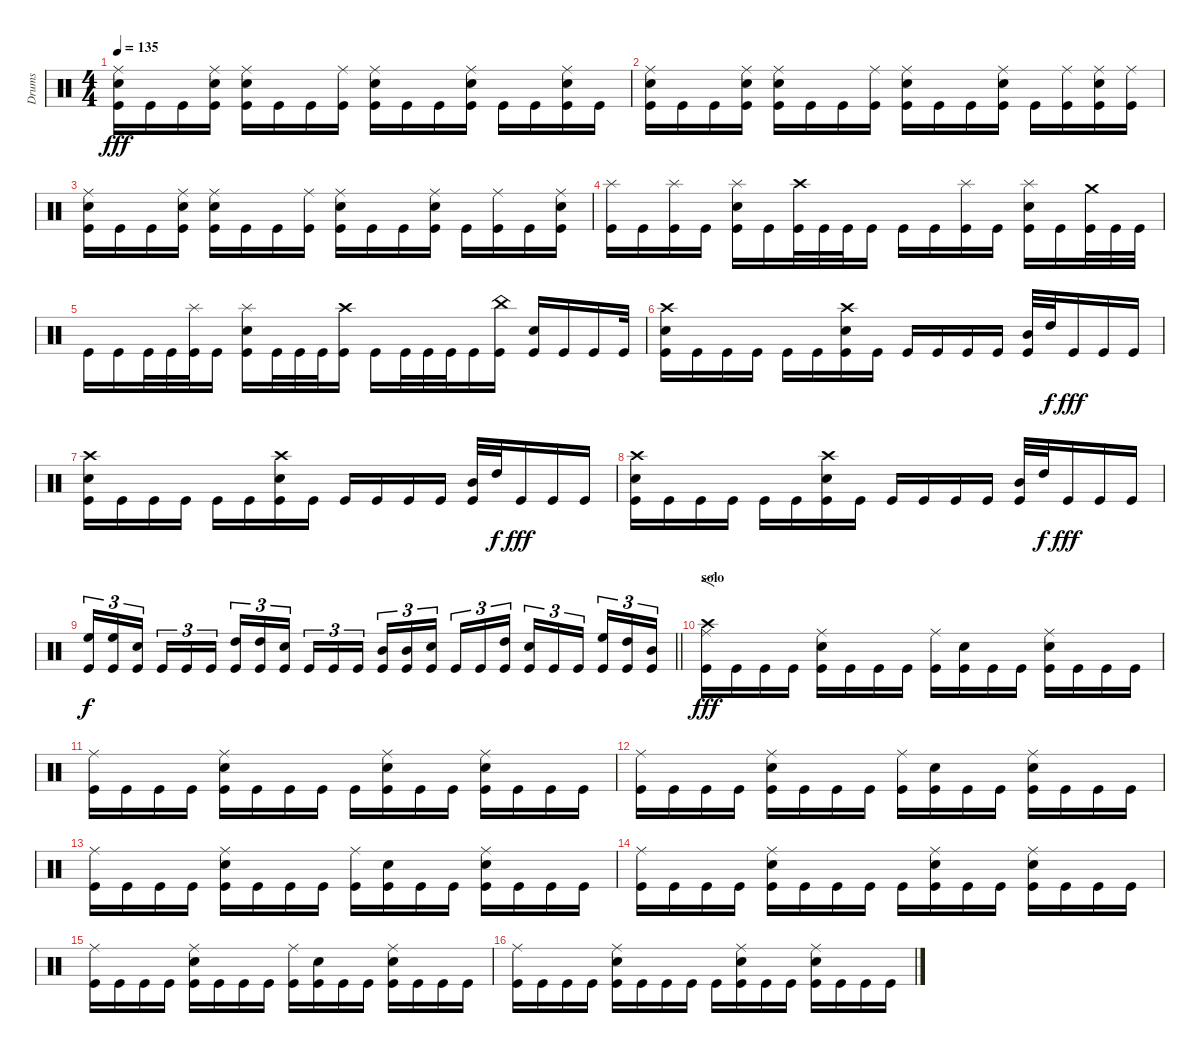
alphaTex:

\track ("Drums" "Drums") {instrument percussion}
\staff {score}
\articulation defaults
\ts (4 4)
\tempo 135
\clef neutral
\ks c
("Ride (middle)" "Electric Snare (hit)" "Kick (hit)").16{dy fff} "Kick (hit)".16 "Kick (hit)".16 ("Ride (middle)" "Electric Snare (hit)" "Kick (hit)").16 ("Ride (middle)" "Electric Snare (hit)" "Kick (hit)").16 "Kick (hit)".16 "Kick (hit)".16 ("Ride (middle)" "Kick (hit)").16 ("Ride (middle)" "Electric Snare (hit)" "Kick (hit)").16 "Kick (hit)".16 "Kick (hit)".16 ("Ride (middle)" "Electric Snare (hit)" "Kick (hit)").16 "Kick (hit)".16 "Kick (hit)".16 ("Ride (middle)" "Electric Snare (hit)" "Kick (hit)").16 "Kick (hit)".16 |
("Ride (middle)" "Electric Snare (hit)" "Kick (hit)").16 "Kick (hit)".16 "Kick (hit)".16 ("Ride (middle)" "Electric Snare (hit)" "Kick (hit)").16 ("Ride (middle)" "Electric Snare (hit)" "Kick (hit)").16 "Kick (hit)".16 "Kick (hit)".16 ("Ride (middle)" "Kick (hit)").16 ("Ride (middle)" "Electric Snare (hit)" "Kick (hit)").16 "Kick (hit)".16 "Kick (hit)".16 ("Ride (middle)" "Electric Snare (hit)" "Kick (hit)").16 "Kick (hit)".16 ("Ride (middle)" "Kick (hit)").16 ("Ride (middle)" "Electric Snare (hit)" "Kick (hit)").16 ("Ride (middle)" "Kick (hit)").16 |
("Ride (middle)" "Electric Snare (hit)" "Kick (hit)").16 "Kick (hit)".16 "Kick (hit)".16 ("Ride (middle)" "Electric Snare (hit)" "Kick (hit)").16 ("Ride (middle)" "Electric Snare (hit)" "Kick (hit)").16 "Kick (hit)".16 "Kick (hit)".16 ("Ride (middle)" "Kick (hit)").16 ("Ride (middle)" "Electric Snare (hit)" "Kick (hit)").16 "Kick (hit)".16 "Kick (hit)".16 ("Ride (middle)" "Electric Snare (hit)" "Kick (hit)").16 "Kick (hit)".16 ("Ride (middle)" "Kick (hit)").16 "Kick (hit)".16 ("Ride (middle)" "Electric Snare (hit)" "Kick (hit)").16 |
("Splash (hit)" "Kick (hit)").16 "Kick (hit)".16 ("Splash (hit)" "Kick (hit)").16 "Kick (hit)".16 ("Splash (hit)" "Electric Snare (hit)" "Kick (hit)").16 "Kick (hit)".16 ("Crash high (hit)" "Kick (hit)").32 "Kick (hit)".32 "Kick (hit)".32 "Kick (hit)".16 "Kick (hit)".16 "Kick (hit)".16 ("Splash (hit)" "Kick (hit)").16 "Kick (hit)".16 ("Splash (hit)" "Electric Snare (hit)" "Kick (hit)").16 "Kick (hit)".16 ("Crash medium (hit)" "Kick (hit)").32 "Kick (hit)".32 "Kick (hit)".32 |
"Kick (hit)".16 "Kick (hit)".16 "Kick (hit)".32 "Kick (hit)".32 ("Splash (hit)" "Kick (hit)").32 "Kick (hit)".16 ("Splash (hit)" "Electric Snare (hit)" "Kick (hit)").16 "Kick (hit)".32 "Kick (hit)".32 "Kick (hit)".32 ("Crash high (hit)" "Kick (hit)").16 "Kick (hit)".16 "Kick (hit)".32 "Kick (hit)".32 "Kick (hit)".32 "Kick (hit)".16 ("China (hit)" "Kick (hit)").16 ("Electric Snare (hit)" "Kick (hit)").16 "Kick (hit)".16 "Kick (hit)".16 "Kick (hit)".32 |
("Crash high (hit)" "Electric Snare (hit)" "Kick (hit)").16 "Kick (hit)".16 "Kick (hit)".16 "Kick (hit)".16 "Kick (hit)".16 "Kick (hit)".16 ("Crash high (hit)" "Electric Snare (hit)" "Kick (hit)").16 "Kick (hit)".16 "Kick (hit)".16 "Kick (hit)".16 "Kick (hit)".16 "Kick (hit)".16 ("Mid Tom (hit)" "Kick (hit)").32 "High Tom (hit)".32{dy f} "Kick (hit)".16{dy fff} "Kick (hit)".16 "Kick (hit)".16 |
("Crash high (hit)" "Electric Snare (hit)" "Kick (hit)").16 "Kick (hit)".16 "Kick (hit)".16 "Kick (hit)".16 "Kick (hit)".16 "Kick (hit)".16 ("Crash high (hit)" "Electric Snare (hit)" "Kick (hit)").16 "Kick (hit)".16 "Kick (hit)".16 "Kick (hit)".16 "Kick (hit)".16 "Kick (hit)".16 ("Mid Tom (hit)" "Kick (hit)").32 "High Tom (hit)".32{dy f} "Kick (hit)".16{dy fff} "Kick (hit)".16 "Kick (hit)".16 |
("Crash high (hit)" "Electric Snare (hit)" "Kick (hit)").16 "Kick (hit)".16 "Kick (hit)".16 "Kick (hit)".16 "Kick (hit)".16 "Kick (hit)".16 ("Crash high (hit)" "Electric Snare (hit)" "Kick (hit)").16 "Kick (hit)".16 "Kick (hit)".16 "Kick (hit)".16 "Kick (hit)".16 "Kick (hit)".16 ("Mid Tom (hit)" "Kick (hit)").32 "High Tom (hit)".32{dy f} "Kick (hit)".16{dy fff} "Kick (hit)".16 "Kick (hit)".16 |
\barLineRight lightlight
("Kick (hit)" "High Floor Tom (hit)").16{tu (3 2) dy f} ("Kick (hit)" "High Floor Tom (hit)").16{tu (3 2)} ("Kick (hit)" "Electric Snare (hit)").16{tu (3 2) beam splitsecondary} "Kick (hit)".16{tu (3 2)} "Kick (hit)".16{tu (3 2)} "Kick (hit)".16{tu (3 2)} ("Kick (hit)" "High Tom (hit)").16{tu (3 2)} ("Kick (hit)" "High Tom (hit)").16{tu (3 2)} ("Kick (hit)" "Electric Snare (hit)").16{tu (3 2) beam splitsecondary} "Kick (hit)".16{tu (3 2)} "Kick (hit)".16{tu (3 2)} "Kick (hit)".16{tu (3 2)} ("Kick (hit)" "Mid Tom (hit)").16{tu (3 2)} ("Kick (hit)" "Mid Tom (hit)").16{tu (3 2)} ("Kick (hit)" "Electric Snare (hit)").16{tu (3 2) beam splitsecondary} "Kick (hit)".16{tu (3 2)} "Kick (hit)".16{tu (3 2)} ("Kick (hit)" "High Tom (hit)").16{tu (3 2)} ("Kick (hit)" "Electric Snare (hit)").16{tu (3 2)} "Kick (hit)".16{tu (3 2)} "Kick (hit)".16{tu (3 2) beam splitsecondary} ("Kick (hit)" "High Floor Tom (hit)").16{tu (3 2)} ("Kick (hit)" "High Tom (hit)").16{tu (3 2)} ("Kick (hit)" "Mid Tom (hit)").16{tu (3 2)} |
\section ("" "solo")
("Crash high (hit)" "Ride (middle)" "Kick (hit)").16{f dy fff} "Kick (hit)".16 "Kick (hit)".16 "Kick (hit)".16 ("Ride (middle)" "Electric Snare (hit)" "Kick (hit)").16 "Kick (hit)".16 "Kick (hit)".16 "Kick (hit)".16 ("Ride (middle)" "Kick (hit)").16 ("Electric Snare (hit)" "Kick (hit)").16 "Kick (hit)".16 "Kick (hit)".16 ("Ride (middle)" "Electric Snare (hit)" "Kick (hit)").16 "Kick (hit)".16 "Kick (hit)".16 "Kick (hit)".16 |
("Ride (middle)" "Kick (hit)").16 "Kick (hit)".16 "Kick (hit)".16 "Kick (hit)".16 ("Ride (middle)" "Electric Snare (hit)" "Kick (hit)").16 "Kick (hit)".16 "Kick (hit)".16 "Kick (hit)".16 "Kick (hit)".16 ("Ride (middle)" "Electric Snare (hit)" "Kick (hit)").16 "Kick (hit)".16 "Kick (hit)".16 ("Ride (middle)" "Electric Snare (hit)" "Kick (hit)").16 "Kick (hit)".16 "Kick (hit)".16 "Kick (hit)".16 |
("Ride (middle)" "Kick (hit)").16 "Kick (hit)".16 "Kick (hit)".16 "Kick (hit)".16 ("Ride (middle)" "Electric Snare (hit)" "Kick (hit)").16 "Kick (hit)".16 "Kick (hit)".16 "Kick (hit)".16 ("Ride (middle)" "Kick (hit)").16 ("Electric Snare (hit)" "Kick (hit)").16 "Kick (hit)".16 "Kick (hit)".16 ("Ride (middle)" "Electric Snare (hit)" "Kick (hit)").16 "Kick (hit)".16 "Kick (hit)".16 "Kick (hit)".16 |
("Ride (middle)" "Kick (hit)").16 "Kick (hit)".16 "Kick (hit)".16 "Kick (hit)".16 ("Ride (middle)" "Electric Snare (hit)" "Kick (hit)").16 "Kick (hit)".16 "Kick (hit)".16 "Kick (hit)".16 ("Ride (middle)" "Kick (hit)").16 ("Electric Snare (hit)" "Kick (hit)").16 "Kick (hit)".16 "Kick (hit)".16 ("Ride (middle)" "Electric Snare (hit)" "Kick (hit)").16 "Kick (hit)".16 "Kick (hit)".16 "Kick (hit)".16 |
("Ride (middle)" "Kick (hit)").16 "Kick (hit)".16 "Kick (hit)".16 "Kick (hit)".16 ("Ride (middle)" "Electric Snare (hit)" "Kick (hit)").16 "Kick (hit)".16 "Kick (hit)".16 "Kick (hit)".16 "Kick (hit)".16 ("Ride (middle)" "Electric Snare (hit)" "Kick (hit)").16 "Kick (hit)".16 "Kick (hit)".16 ("Ride (middle)" "Electric Snare (hit)" "Kick (hit)").16 "Kick (hit)".16 "Kick (hit)".16 "Kick (hit)".16 |
("Ride (middle)" "Kick (hit)").16 "Kick (hit)".16 "Kick (hit)".16 "Kick (hit)".16 ("Ride (middle)" "Electric Snare (hit)" "Kick (hit)").16 "Kick (hit)".16 "Kick (hit)".16 "Kick (hit)".16 ("Ride (middle)" "Kick (hit)").16 ("Electric Snare (hit)" "Kick (hit)").16 "Kick (hit)".16 "Kick (hit)".16 ("Ride (middle)" "Electric Snare (hit)" "Kick (hit)").16 "Kick (hit)".16 "Kick (hit)".16 "Kick (hit)".16 |
("Ride (middle)" "Kick (hit)").16 "Kick (hit)".16 "Kick (hit)".16 "Kick (hit)".16 ("Ride (middle)" "Electric Snare (hit)" "Kick (hit)").16 "Kick (hit)".16 "Kick (hit)".16 "Kick (hit)".16 "Kick (hit)".16 ("Ride (middle)" "Electric Snare (hit)" "Kick (hit)").16 "Kick (hit)".16 "Kick (hit)".16 ("Ride (middle)" "Electric Snare (hit)" "Kick (hit)").16 "Kick (hit)".16 "Kick (hit)".16 "Kick (hit)".16
